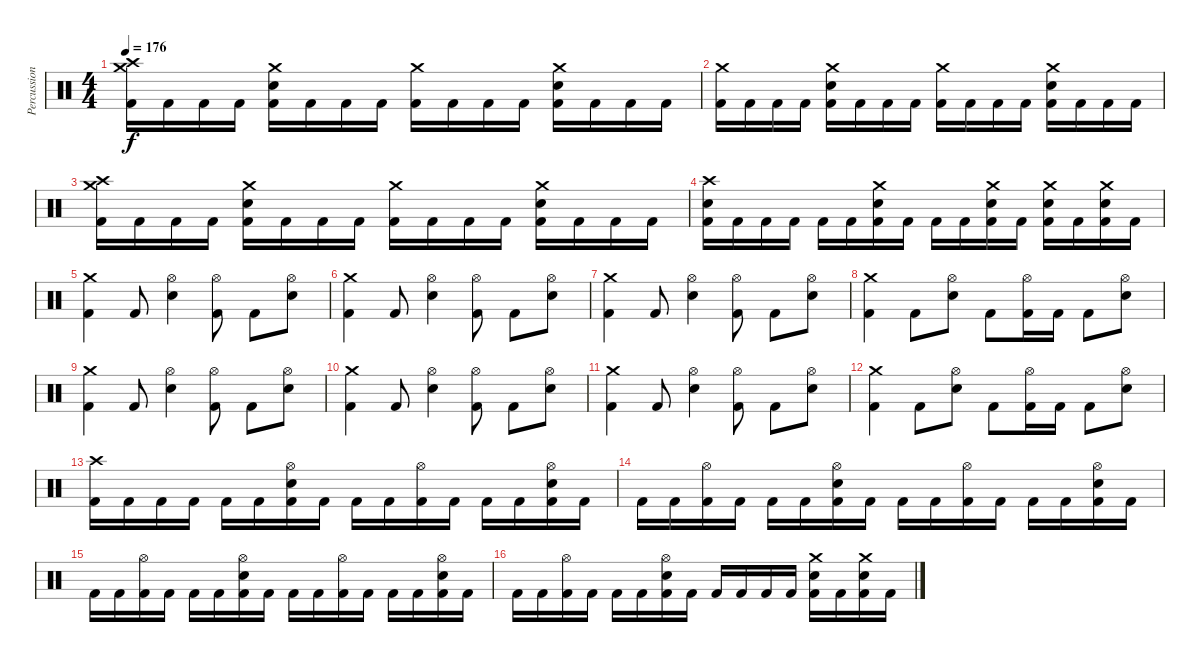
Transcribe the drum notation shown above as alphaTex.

\track ("Percussion" "Percussion") {instrument percussion}
\staff {score}
\articulation defaults
\ts (4 4)
\tempo 176
\clef neutral
\ks c
("Crash high (hit)" "Crash medium (hit)" "Kick (hit) 2").16{dy f} "Kick (hit) 2".16 "Kick (hit) 2".16 "Kick (hit) 2".16 ("Crash medium (hit)" "Snare (hit) 2" "Kick (hit) 2").16 "Kick (hit) 2".16 "Kick (hit) 2".16 "Kick (hit) 2".16 ("Crash medium (hit)" "Kick (hit) 2").16 "Kick (hit) 2".16 "Kick (hit) 2".16 "Kick (hit) 2".16 ("Crash medium (hit)" "Snare (hit) 2" "Kick (hit) 2").16 "Kick (hit) 2".16 "Kick (hit) 2".16 "Kick (hit) 2".16 |
("Crash medium (hit)" "Kick (hit) 2").16 "Kick (hit) 2".16 "Kick (hit) 2".16 "Kick (hit) 2".16 ("Crash medium (hit)" "Snare (hit) 2" "Kick (hit) 2").16 "Kick (hit) 2".16 "Kick (hit) 2".16 "Kick (hit) 2".16 ("Crash medium (hit)" "Kick (hit) 2").16 "Kick (hit) 2".16 "Kick (hit) 2".16 "Kick (hit) 2".16 ("Crash medium (hit)" "Snare (hit) 2" "Kick (hit) 2").16 "Kick (hit) 2".16 "Kick (hit) 2".16 "Kick (hit) 2".16 |
("Crash high (hit)" "Crash medium (hit)" "Kick (hit) 2").16 "Kick (hit) 2".16 "Kick (hit) 2".16 "Kick (hit) 2".16 ("Crash medium (hit)" "Snare (hit) 2" "Kick (hit) 2").16 "Kick (hit) 2".16 "Kick (hit) 2".16 "Kick (hit) 2".16 ("Crash medium (hit)" "Kick (hit) 2").16 "Kick (hit) 2".16 "Kick (hit) 2".16 "Kick (hit) 2".16 ("Crash medium (hit)" "Snare (hit) 2" "Kick (hit) 2").16 "Kick (hit) 2".16 "Kick (hit) 2".16 "Kick (hit) 2".16 |
("Crash high (hit)" "Snare (hit) 2" "Kick (hit) 2").16 "Kick (hit) 2".16 "Kick (hit) 2".16 "Kick (hit) 2".16 "Kick (hit) 2".16 "Kick (hit) 2".16 ("Crash medium (hit)" "Snare (hit) 2" "Kick (hit) 2").16 "Kick (hit) 2".16 "Kick (hit) 2".16 "Kick (hit) 2".16 ("Crash medium (hit)" "Snare (hit) 2" "Kick (hit) 2").16 "Kick (hit) 2".16 ("Crash medium (hit)" "Snare (hit) 2" "Kick (hit) 2").16 "Kick (hit) 2".16 ("Crash medium (hit)" "Snare (hit) 2" "Kick (hit) 2").16 "Kick (hit) 2".16 |
("Crash medium (hit)" "Kick (hit) 2").4 "Kick (hit) 2".8 ("Hi-Hat (open)" "Snare (hit) 2").4 ("Hi-Hat (open)" "Kick (hit) 2").8 "Kick (hit) 2".8 ("Hi-Hat (open)" "Snare (hit) 2").8 |
("Crash medium (hit)" "Kick (hit) 2").4 "Kick (hit) 2".8 ("Hi-Hat (open)" "Snare (hit) 2").4 ("Hi-Hat (open)" "Kick (hit) 2").8 "Kick (hit) 2".8 ("Hi-Hat (open)" "Snare (hit) 2").8 |
("Crash medium (hit)" "Kick (hit) 2").4 "Kick (hit) 2".8 ("Hi-Hat (open)" "Snare (hit) 2").4 ("Hi-Hat (open)" "Kick (hit) 2").8 "Kick (hit) 2".8 ("Hi-Hat (open)" "Snare (hit) 2").8 |
("Crash medium (hit)" "Kick (hit) 2").4 "Kick (hit) 2".8 ("Hi-Hat (open)" "Snare (hit) 2").8 "Kick (hit) 2".8 ("Hi-Hat (open)" "Kick (hit) 2").16 "Kick (hit) 2".16 "Kick (hit) 2".8 ("Hi-Hat (open)" "Snare (hit) 2").8 |
("Crash medium (hit)" "Kick (hit) 2").4 "Kick (hit) 2".8 ("Hi-Hat (open)" "Snare (hit) 2").4 ("Hi-Hat (open)" "Kick (hit) 2").8 "Kick (hit) 2".8 ("Hi-Hat (open)" "Snare (hit) 2").8 |
("Crash medium (hit)" "Kick (hit) 2").4 "Kick (hit) 2".8 ("Hi-Hat (open)" "Snare (hit) 2").4 ("Hi-Hat (open)" "Kick (hit) 2").8 "Kick (hit) 2".8 ("Hi-Hat (open)" "Snare (hit) 2").8 |
("Crash medium (hit)" "Kick (hit) 2").4 "Kick (hit) 2".8 ("Hi-Hat (open)" "Snare (hit) 2").4 ("Hi-Hat (open)" "Kick (hit) 2").8 "Kick (hit) 2".8 ("Hi-Hat (open)" "Snare (hit) 2").8 |
("Crash medium (hit)" "Kick (hit) 2").4 "Kick (hit) 2".8 ("Hi-Hat (open)" "Snare (hit) 2").8 "Kick (hit) 2".8 ("Hi-Hat (open)" "Kick (hit) 2").16 "Kick (hit) 2".16 "Kick (hit) 2".8 ("Hi-Hat (open)" "Snare (hit) 2").8 |
("Crash high (hit)" "Kick (hit) 2").16 "Kick (hit) 2".16 "Kick (hit) 2".16 "Kick (hit) 2".16 "Kick (hit) 2".16 "Kick (hit) 2".16 ("Hi-Hat (open)" "Snare (hit) 2" "Kick (hit) 2").16 "Kick (hit) 2".16 "Kick (hit) 2".16 "Kick (hit) 2".16 ("Hi-Hat (open)" "Kick (hit) 2").16 "Kick (hit) 2".16 "Kick (hit) 2".16 "Kick (hit) 2".16 ("Hi-Hat (open)" "Snare (hit) 2" "Kick (hit) 2").16 "Kick (hit) 2".16 |
"Kick (hit) 2".16 "Kick (hit) 2".16 ("Hi-Hat (open)" "Kick (hit) 2").16 "Kick (hit) 2".16 "Kick (hit) 2".16 "Kick (hit) 2".16 ("Hi-Hat (open)" "Snare (hit) 2" "Kick (hit) 2").16 "Kick (hit) 2".16 "Kick (hit) 2".16 "Kick (hit) 2".16 ("Hi-Hat (open)" "Kick (hit) 2").16 "Kick (hit) 2".16 "Kick (hit) 2".16 "Kick (hit) 2".16 ("Hi-Hat (open)" "Snare (hit) 2" "Kick (hit) 2").16 "Kick (hit) 2".16 |
"Kick (hit) 2".16 "Kick (hit) 2".16 ("Hi-Hat (open)" "Kick (hit) 2").16 "Kick (hit) 2".16 "Kick (hit) 2".16 "Kick (hit) 2".16 ("Hi-Hat (open)" "Snare (hit) 2" "Kick (hit) 2").16 "Kick (hit) 2".16 "Kick (hit) 2".16 "Kick (hit) 2".16 ("Hi-Hat (open)" "Kick (hit) 2").16 "Kick (hit) 2".16 "Kick (hit) 2".16 "Kick (hit) 2".16 ("Hi-Hat (open)" "Snare (hit) 2" "Kick (hit) 2").16 "Kick (hit) 2".16 |
"Kick (hit) 2".16 "Kick (hit) 2".16 ("Hi-Hat (open)" "Kick (hit) 2").16 "Kick (hit) 2".16 "Kick (hit) 2".16 "Kick (hit) 2".16 ("Hi-Hat (open)" "Snare (hit) 2" "Kick (hit) 2").16 "Kick (hit) 2".16 "Kick (hit) 2".16 "Kick (hit) 2".16 "Kick (hit) 2".16 "Kick (hit) 2".16 ("Crash medium (hit)" "Snare (hit) 2" "Kick (hit) 2").16 "Kick (hit) 2".16 ("Crash medium (hit)" "Snare (hit) 2" "Kick (hit) 2").16 "Kick (hit) 2".16
